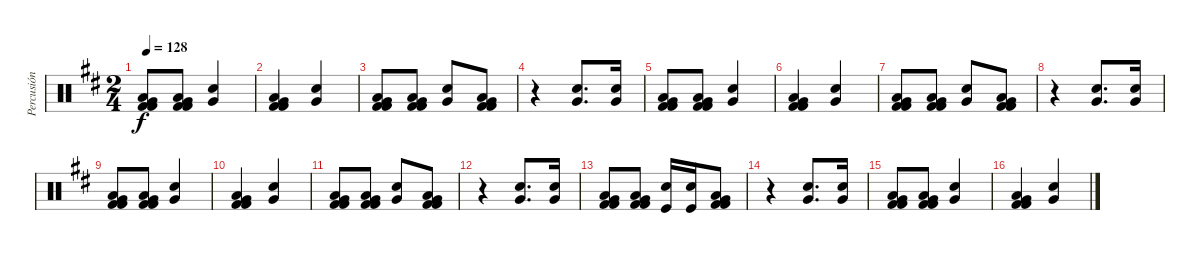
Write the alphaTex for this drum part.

\track ("Percusión" "Percusión") {instrument percussion}
\staff {score}
\articulation defaults
\ts (2 4)
\tempo 128
\clef neutral
\ks d
("Kick (hit) 2" "Low Floor Tom (hit)" "Kick (hit) 2" "Very Low Tom (hit)").8{dy f} ("Kick (hit) 2" "Low Floor Tom (hit)" "Kick (hit) 2" "Very Low Tom (hit)").8 ("Electric Snare (hit)" "Very Low Tom (hit)").4 |
("Kick (hit) 2" "Low Floor Tom (hit)" "Kick (hit) 2" "Very Low Tom (hit)").4 ("Electric Snare (hit)" "Very Low Tom (hit)").4 |
("Kick (hit) 2" "Low Floor Tom (hit)" "Kick (hit) 2" "Very Low Tom (hit)").8 ("Kick (hit) 2" "Low Floor Tom (hit)" "Kick (hit) 2" "Very Low Tom (hit)").8 ("Electric Snare (hit)" "Very Low Tom (hit)").8 ("Kick (hit) 2" "Low Floor Tom (hit)" "Kick (hit) 2" "Very Low Tom (hit)").8 |
r.4 ("Electric Snare (hit)" "Very Low Tom (hit)").8{d} ("Electric Snare (hit)" "Very Low Tom (hit)").16 |
("Kick (hit) 2" "Low Floor Tom (hit)" "Kick (hit) 2" "Very Low Tom (hit)").8 ("Kick (hit) 2" "Low Floor Tom (hit)" "Kick (hit) 2" "Very Low Tom (hit)").8 ("Electric Snare (hit)" "Very Low Tom (hit)").4 |
("Kick (hit) 2" "Low Floor Tom (hit)" "Kick (hit) 2" "Very Low Tom (hit)").4 ("Electric Snare (hit)" "Very Low Tom (hit)").4 |
("Kick (hit) 2" "Low Floor Tom (hit)" "Kick (hit) 2" "Very Low Tom (hit)").8 ("Kick (hit) 2" "Low Floor Tom (hit)" "Kick (hit) 2" "Very Low Tom (hit)").8 ("Electric Snare (hit)" "Very Low Tom (hit)").8 ("Kick (hit) 2" "Low Floor Tom (hit)" "Kick (hit) 2" "Very Low Tom (hit)").8 |
r.4 ("Electric Snare (hit)" "Very Low Tom (hit)").8{d} ("Electric Snare (hit)" "Very Low Tom (hit)").16 |
("Kick (hit) 2" "Low Floor Tom (hit)" "Kick (hit) 2" "Very Low Tom (hit)").8 ("Kick (hit) 2" "Low Floor Tom (hit)" "Kick (hit) 2" "Very Low Tom (hit)").8 ("Electric Snare (hit)" "Very Low Tom (hit)").4 |
("Kick (hit) 2" "Low Floor Tom (hit)" "Kick (hit) 2" "Very Low Tom (hit)").4 ("Electric Snare (hit)" "Very Low Tom (hit)").4 |
("Kick (hit) 2" "Low Floor Tom (hit)" "Kick (hit) 2" "Very Low Tom (hit)").8 ("Kick (hit) 2" "Low Floor Tom (hit)" "Kick (hit) 2" "Very Low Tom (hit)").8 ("Electric Snare (hit)" "Very Low Tom (hit)").8 ("Kick (hit) 2" "Low Floor Tom (hit)" "Kick (hit) 2" "Very Low Tom (hit)").8 |
r.4 ("Electric Snare (hit)" "Very Low Tom (hit)").8{d} ("Electric Snare (hit)" "Very Low Tom (hit)").16 |
("Kick (hit) 2" "Low Floor Tom (hit)" "Kick (hit) 2" "Very Low Tom (hit)").8 ("Kick (hit) 2" "Low Floor Tom (hit)" "Kick (hit) 2" "Very Low Tom (hit)").8 ("Kick (hit)" "Electric Snare (hit)").16 ("Kick (hit)" "Electric Snare (hit)").16 ("Kick (hit) 2" "Low Floor Tom (hit)" "Kick (hit) 2" "Very Low Tom (hit)").8 |
r.4 ("Electric Snare (hit)" "Very Low Tom (hit)").8{d} ("Electric Snare (hit)" "Very Low Tom (hit)").16 |
("Kick (hit) 2" "Low Floor Tom (hit)" "Kick (hit) 2" "Very Low Tom (hit)").8 ("Kick (hit) 2" "Low Floor Tom (hit)" "Kick (hit) 2" "Very Low Tom (hit)").8 ("Electric Snare (hit)" "Very Low Tom (hit)").4 |
("Kick (hit) 2" "Low Floor Tom (hit)" "Kick (hit) 2" "Very Low Tom (hit)").4 ("Electric Snare (hit)" "Very Low Tom (hit)").4
